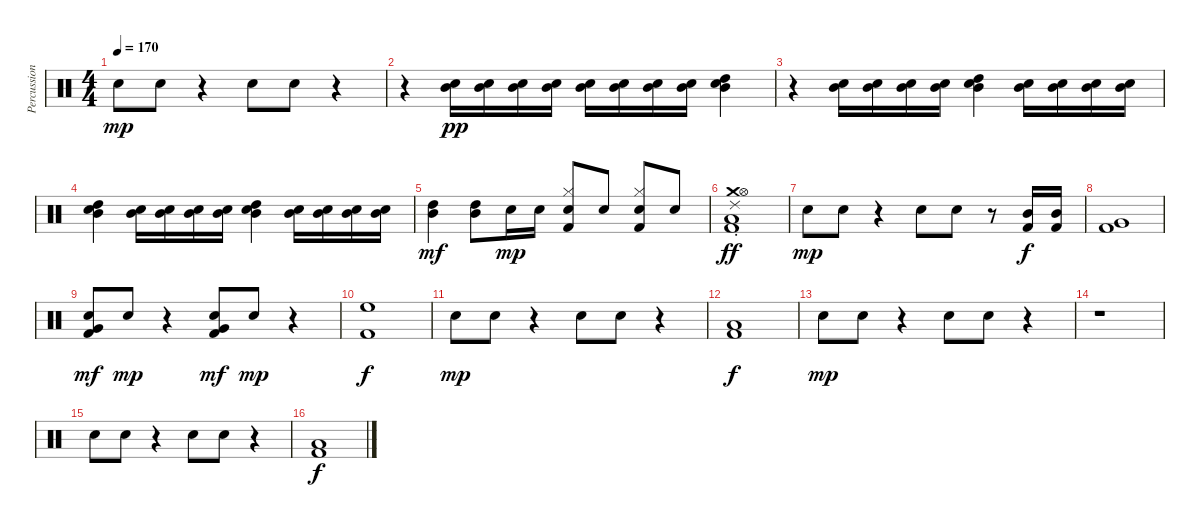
\track ("Percussion" "Percussion") {instrument percussion}
\staff {score}
\articulation defaults
\ts (4 4)
\tempo 170
\clef neutral
\ks c "Snare (hit) 2".8{dy mp} "Snare (hit) 2".8
r.4 "Snare (hit) 2".8 "Snare (hit) 2".8 r.4 |
r.4 ("Mid Tom (hit)" "Snare (hit) 2").16{dy pp} ("Mid Tom (hit)" "Snare (hit) 2").16 ("Mid Tom (hit)" "Snare (hit) 2").16 ("Mid Tom (hit)" "Snare (hit) 2").16 ("Mid Tom (hit)" "Snare (hit) 2").16 ("Mid Tom (hit)" "Snare (hit) 2").16 ("Mid Tom (hit)" "Snare (hit) 2").16 ("Mid Tom (hit)" "Snare (hit) 2").16 ("High Tom (hit)" "Mid Tom (hit)" "Snare (hit) 2").4 |
r.4 ("Mid Tom (hit)" "Snare (hit) 2").16 ("Mid Tom (hit)" "Snare (hit) 2").16 ("Mid Tom (hit)" "Snare (hit) 2").16 ("Mid Tom (hit)" "Snare (hit) 2").16 ("High Tom (hit)" "Mid Tom (hit)" "Snare (hit) 2").4 ("Mid Tom (hit)" "Snare (hit) 2").16 ("Mid Tom (hit)" "Snare (hit) 2").16 ("Mid Tom (hit)" "Snare (hit) 2").16 ("Mid Tom (hit)" "Snare (hit) 2").16 |
("High Tom (hit)" "Mid Tom (hit)" "Snare (hit) 2").4 ("Mid Tom (hit)" "Snare (hit) 2").16 ("Mid Tom (hit)" "Snare (hit) 2").16 ("Mid Tom (hit)" "Snare (hit) 2").16 ("Mid Tom (hit)" "Snare (hit) 2").16 ("High Tom (hit)" "Mid Tom (hit)" "Snare (hit) 2").4 ("Mid Tom (hit)" "Snare (hit) 2").16 ("Mid Tom (hit)" "Snare (hit) 2").16 ("Mid Tom (hit)" "Snare (hit) 2").16 ("Mid Tom (hit)" "Snare (hit) 2").16 |
("High Tom (hit)" "Mid Tom (hit)").4{dy mf} ("High Tom (hit)" "Mid Tom (hit)").8 "Snare (hit) 2".16{dy mp} "Snare (hit) 2".16 ("Hi-Hat (closed)" "Snare (hit) 2" "Kick (hit) 2").8 "Snare (hit) 2".8 ("Hi-Hat (closed)" "Snare (hit) 2" "Kick (hit) 2").8 "Snare (hit) 2".8 |
("Ride (choke) 2" "Crash medium (hit)" "Hi-Hat (open)" "Low Floor Tom (hit)" "Kick (hit) 2").1{dy ff} |
"Snare (hit) 2".8{dy mp volume 12} "Snare (hit) 2".8 r.4 "Snare (hit) 2".8 "Snare (hit) 2".8 r.8 ("Mid Tom (hit)" "Kick (hit) 2").16{dy f} ("Mid Tom (hit)" "Kick (hit) 2").16 |
("Very Low Tom (hit)" "Kick (hit) 2").1 |
("Snare (hit) 2" "Very Low Tom (hit)" "Kick (hit) 2").8{dy mf} "Snare (hit) 2".8{dy mp} r.4 ("Snare (hit) 2" "Very Low Tom (hit)" "Kick (hit) 2").8{dy mf} "Snare (hit) 2".8{dy mp} r.4 |
("High Floor Tom (hit)" "Kick (hit) 2").1{dy f} |
"Snare (hit) 2".8{dy mp} "Snare (hit) 2".8 r.4 "Snare (hit) 2".8 "Snare (hit) 2".8 r.4 |
("Low Tom (hit)" "Kick (hit) 2").1{dy f} |
"Snare (hit) 2".8{dy mp} "Snare (hit) 2".8 r.4 "Snare (hit) 2".8 "Snare (hit) 2".8 r.4 |
r.1 |
"Snare (hit) 2".8 "Snare (hit) 2".8 r.4 "Snare (hit) 2".8 "Snare (hit) 2".8 r.4 |
("Low Floor Tom (hit)" "Kick (hit) 2").1{dy f}
